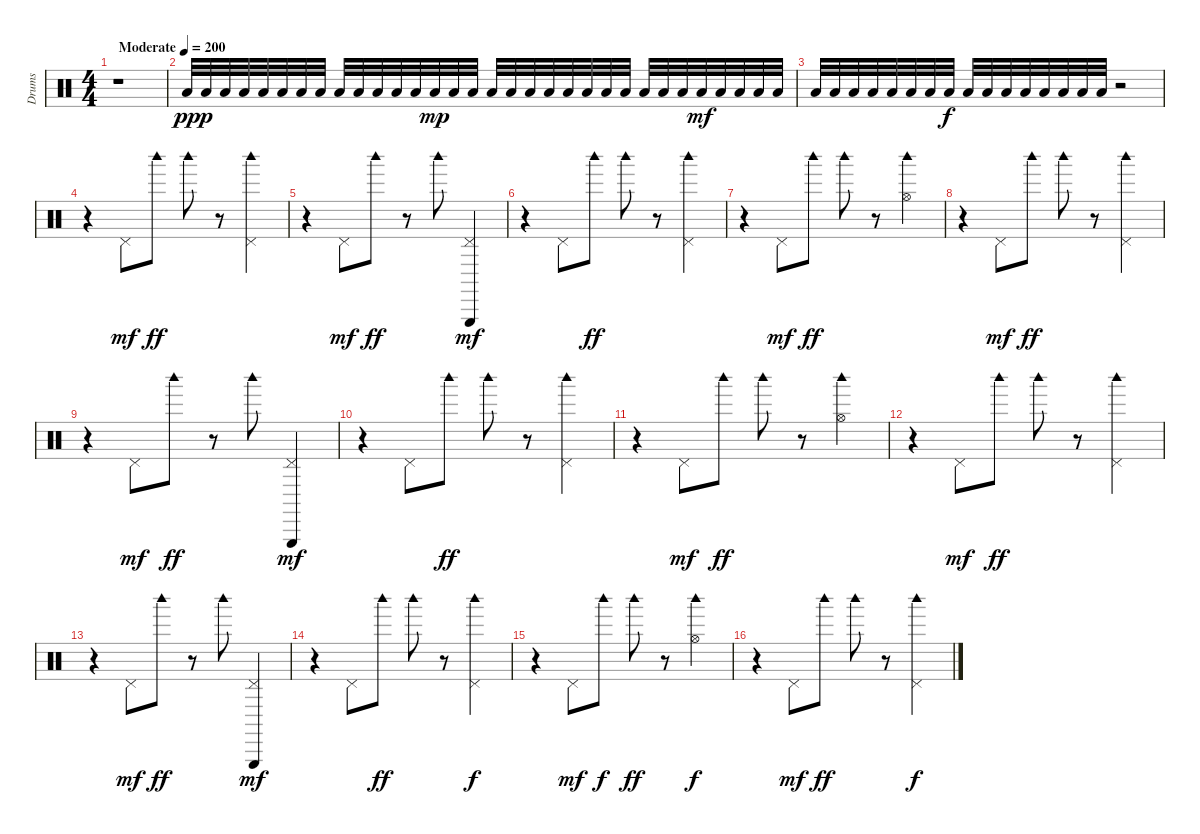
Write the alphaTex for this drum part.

\track ("Drums" "Drums") {instrument percussion}
\staff {score}
\articulation defaults
\ts (4 4)
\tempo (200 "Moderate")
\clef neutral
\ks c
r.1{dy pp} |
"Low Floor Tom (hit)".32 "Low Floor Tom (hit)".32{dy p} "Low Floor Tom (hit)".32 "Low Floor Tom (hit)".32 "Low Floor Tom (hit)".32 "Low Floor Tom (hit)".32 "Low Floor Tom (hit)".32 "Low Floor Tom (hit)".32 "Low Floor Tom (hit)".32 "Low Floor Tom (hit)".32 "Low Floor Tom (hit)".32 "Low Floor Tom (hit)".32 "Low Floor Tom (hit)".32 "Low Floor Tom (hit)".32{dy mp} "Low Floor Tom (hit)".32 "Low Floor Tom (hit)".32 "Low Floor Tom (hit)".32 "Low Floor Tom (hit)".32 "Low Floor Tom (hit)".32 "Low Floor Tom (hit)".32 "Low Floor Tom (hit)".32 "Low Floor Tom (hit)".32 "Low Floor Tom (hit)".32 "Low Floor Tom (hit)".32 "Low Floor Tom (hit)".32 "Low Floor Tom (hit)".32 "Low Floor Tom (hit)".32 "Low Floor Tom (hit)".32{dy mf} "Low Floor Tom (hit)".32 "Low Floor Tom (hit)".32 "Low Floor Tom (hit)".32 "Low Floor Tom (hit)".32 |
"Low Floor Tom (hit)".32 "Low Floor Tom (hit)".32 "Low Floor Tom (hit)".32 "Low Floor Tom (hit)".32 "Low Floor Tom (hit)".32 "Low Floor Tom (hit)".32 "Low Floor Tom (hit)".32 "Low Floor Tom (hit)".32{dy f} "Low Floor Tom (hit)".32 "Low Floor Tom (hit)".32 "Low Floor Tom (hit)".32 "Low Floor Tom (hit)".32 "Low Floor Tom (hit)".32 "Low Floor Tom (hit)".32 "Low Floor Tom (hit)".32 "Low Floor Tom (hit)".32 r.2 |
r.4 "Pedal Hi-Hat (hit)".8{dy mf} "Woodblock high (hit)".8{dy ff} "Woodblock high (hit)".8 r.8 ("Pedal Hi-Hat (hit)" "Woodblock high (hit)").4 |
r.4 "Pedal Hi-Hat (hit)".8{dy mf} "Woodblock high (hit)".8{dy ff} r.8 "Woodblock high (hit)".8 ("Pedal Hi-Hat (hit)" "Triangle (hit)").4{dy mf} |
r.4 "Pedal Hi-Hat (hit)".8 "Woodblock high (hit)".8{dy ff} "Woodblock high (hit)".8 r.8 ("Pedal Hi-Hat (hit)" "Woodblock high (hit)").4 |
r.4 "Pedal Hi-Hat (hit)".8{dy mf} "Woodblock high (hit)".8{dy ff} "Woodblock high (hit)".8 r.8 ("Woodblock high (hit)" "Hi-Hat (open)").4 |
r.4 "Pedal Hi-Hat (hit)".8{dy mf} "Woodblock high (hit)".8{dy ff} "Woodblock high (hit)".8 r.8 ("Pedal Hi-Hat (hit)" "Woodblock high (hit)").4 |
r.4 "Pedal Hi-Hat (hit)".8{dy mf} "Woodblock high (hit)".8{dy ff} r.8 "Woodblock high (hit)".8 ("Pedal Hi-Hat (hit)" "Triangle (hit)").4{dy mf} |
r.4 "Pedal Hi-Hat (hit)".8 "Woodblock high (hit)".8{dy ff} "Woodblock high (hit)".8 r.8 ("Pedal Hi-Hat (hit)" "Woodblock high (hit)").4 |
r.4 "Pedal Hi-Hat (hit)".8{dy mf} "Woodblock high (hit)".8{dy ff} "Woodblock high (hit)".8 r.8 ("Woodblock high (hit)" "Hi-Hat (open)").4 |
r.4 "Pedal Hi-Hat (hit)".8{dy mf} "Woodblock high (hit)".8{dy ff} "Woodblock high (hit)".8 r.8 ("Pedal Hi-Hat (hit)" "Woodblock high (hit)").4 |
r.4 "Pedal Hi-Hat (hit)".8{dy mf} "Woodblock high (hit)".8{dy ff} r.8 "Woodblock high (hit)".8 ("Pedal Hi-Hat (hit)" "Triangle (hit)").4{dy mf} |
r.4 "Pedal Hi-Hat (hit)".8 "Woodblock high (hit)".8{dy ff} "Woodblock high (hit)".8 r.8 ("Pedal Hi-Hat (hit)" "Woodblock high (hit)").4{dy f} |
r.4 "Pedal Hi-Hat (hit)".8{dy mf} "Woodblock high (hit)".8{dy f} "Woodblock high (hit)".8{dy ff} r.8 ("Woodblock high (hit)" "Hi-Hat (open)").4{dy f} |
r.4 "Pedal Hi-Hat (hit)".8{dy mf} "Woodblock high (hit)".8{dy ff} "Woodblock high (hit)".8 r.8 ("Pedal Hi-Hat (hit)" "Woodblock high (hit)").4{dy f}
